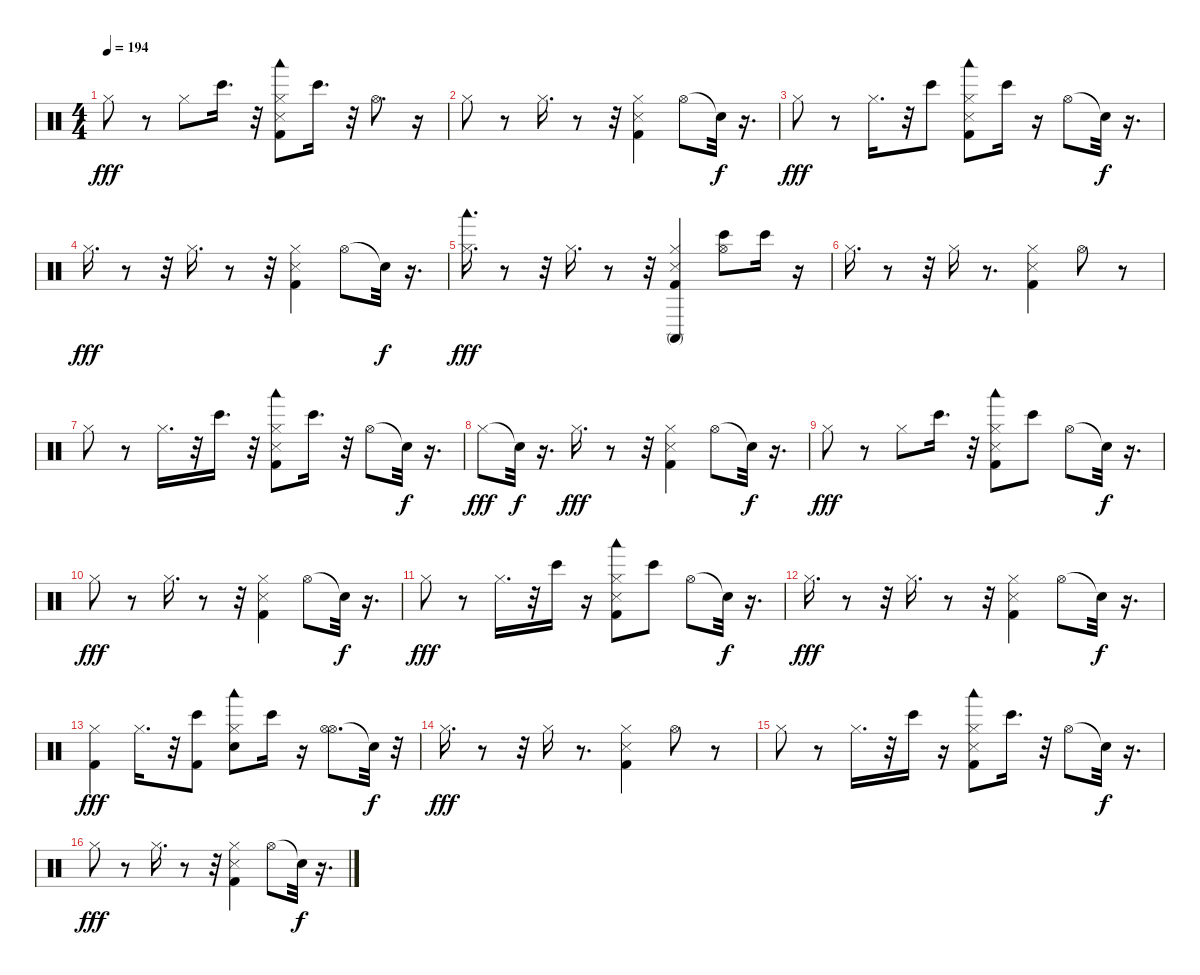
\track "" {instrument percussion}
\staff {score}
\articulation defaults
\ts (4 4)
\tempo 194
\clef neutral
\ks c "Hi-Hat (closed)".8{dy fff}
r.8 "Hi-Hat (closed)".8 "Bongo High (hit)".16{d} r.32 ("Kick (hit) 2" "Hi-Hat (closed)" "Snare (side stick) 3" "Woodblock low (hit)").8 "Bongo High (hit)".16{d} r.32 "Hi-Hat (open)".8{d} r.16 |
"Hi-Hat (closed)".8 r.8 "Hi-Hat (closed)".16{d} r.8 r.32 ("Kick (hit) 2" "Snare (side stick) 3" "Hi-Hat (closed)").4 "Hi-Hat (open)".8 "Snare (hit)"{t}.32{dy f} r.16{d} |
"Hi-Hat (closed)".8{dy fff} r.8 "Hi-Hat (closed)".16{d} r.32 "Bongo High (hit)".8 ("Kick (hit) 2" "Snare (side stick) 3" "Hi-Hat (closed)" "Woodblock low (hit)").8 "Bongo High (hit)".16 r.16 "Hi-Hat (open)".8 "Snare (hit)"{t}.32{dy f} r.16{d} |
"Hi-Hat (closed)".16{d dy fff} r.8 r.32 "Hi-Hat (closed)".16{d} r.8 r.32 ("Kick (hit) 2" "Snare (side stick) 3" "Hi-Hat (closed)").4 "Hi-Hat (open)".8 "Snare (hit)"{t}.32{dy f} r.16{d} |
("Hi-Hat (closed)" "Woodblock low (hit)").16{d dy fff} r.8 r.32 "Hi-Hat (closed)".16{d} r.8 r.32 ("Kick (hit) 2" "Hi-Hat (closed)" "Snare (side stick) 3" "Conga high (mute)").4 ("Hi-Hat (open)" "Bongo High (hit)").8 "Bongo High (hit)".16 r.16 |
"Hi-Hat (closed)".16{d} r.8 r.32 "Hi-Hat (closed)".16 r.8{d} ("Snare (side stick) 3" "Kick (hit) 2" "Hi-Hat (closed)").4 "Hi-Hat (open)".8 r.8 |
"Hi-Hat (closed)".8 r.8 "Hi-Hat (closed)".16{d} r.32 "Bongo High (hit)".16{d} r.32 ("Snare (side stick) 3" "Kick (hit) 2" "Hi-Hat (closed)" "Woodblock low (hit)").8 "Bongo High (hit)".16{d} r.32 "Hi-Hat (open)".8 "Snare (hit)"{t}.32{dy f} r.16{d} |
"Hi-Hat (closed)".8{dy fff} "Snare (hit)"{t}.32{dy f} r.16{d} "Hi-Hat (closed)".16{d dy fff} r.8 r.32 ("Snare (side stick) 3" "Kick (hit) 2" "Hi-Hat (closed)").4 "Hi-Hat (open)".8 "Snare (hit)"{t}.32{dy f} r.16{d} |
"Hi-Hat (closed)".8{dy fff} r.8 "Hi-Hat (closed)".8 "Bongo High (hit)".16{d} r.32 ("Hi-Hat (closed)" "Snare (side stick) 3" "Kick (hit) 2" "Woodblock low (hit)").8 "Bongo High (hit)".8 "Hi-Hat (open)".8 "Snare (hit)"{t}.32{dy f} r.16{d} |
"Hi-Hat (closed)".8{dy fff} r.8 "Hi-Hat (closed)".16{d} r.8 r.32 ("Snare (side stick) 3" "Kick (hit) 2" "Hi-Hat (closed)").4 "Hi-Hat (open)".8 "Snare (hit)"{t}.32{dy f} r.16{d} |
"Hi-Hat (closed)".8{dy fff} r.8 "Hi-Hat (closed)".16{d} r.32 "Bongo High (hit)".16 r.16 ("Snare (side stick) 3" "Kick (hit) 2" "Hi-Hat (closed)" "Woodblock low (hit)").8 "Bongo High (hit)".8 "Hi-Hat (open)".8 "Snare (hit)"{t}.32{dy f} r.16{d} |
"Hi-Hat (closed)".16{d dy fff} r.8 r.32 "Hi-Hat (closed)".16{d} r.8 r.32 ("Kick (hit) 2" "Snare (side stick) 3" "Hi-Hat (closed)").4 "Hi-Hat (open)".8 "Snare (hit)"{t}.32{dy f} r.16{d} |
("Hi-Hat (closed)" "Kick (hit) 2").4{dy fff} "Hi-Hat (closed)".16{d} r.32 ("Bongo High (hit)" "Kick (hit) 2").8 ("Hi-Hat (closed)" "Woodblock low (hit)" "Snare (hit) 2").8 "Bongo High (hit)".16 r.16 ("Hi-Hat (open)" "Hi-Hat (open)").8{d} "Snare (hit)"{t}.32{dy f} r.32 |
"Hi-Hat (closed)".16{d dy fff} r.8 r.32 "Hi-Hat (closed)".16 r.8{d} ("Kick (hit) 2" "Snare (side stick) 3" "Hi-Hat (closed)").4 "Hi-Hat (open)".8 r.8 |
"Hi-Hat (closed)".8 r.8 "Hi-Hat (closed)".16{d} r.32 "Bongo High (hit)".16 r.16 ("Woodblock low (hit)" "Kick (hit) 2" "Snare (side stick) 3" "Hi-Hat (closed)").8 "Bongo High (hit)".16{d} r.32 "Hi-Hat (open)".8 "Snare (hit)"{t}.32{dy f} r.16{d} |
"Hi-Hat (closed)".8{dy fff} r.8 "Hi-Hat (closed)".16{d} r.8 r.32 ("Kick (hit) 2" "Snare (side stick) 3" "Hi-Hat (closed)").4 "Hi-Hat (open)".8 "Snare (hit)"{t}.32{dy f} r.16{d}
